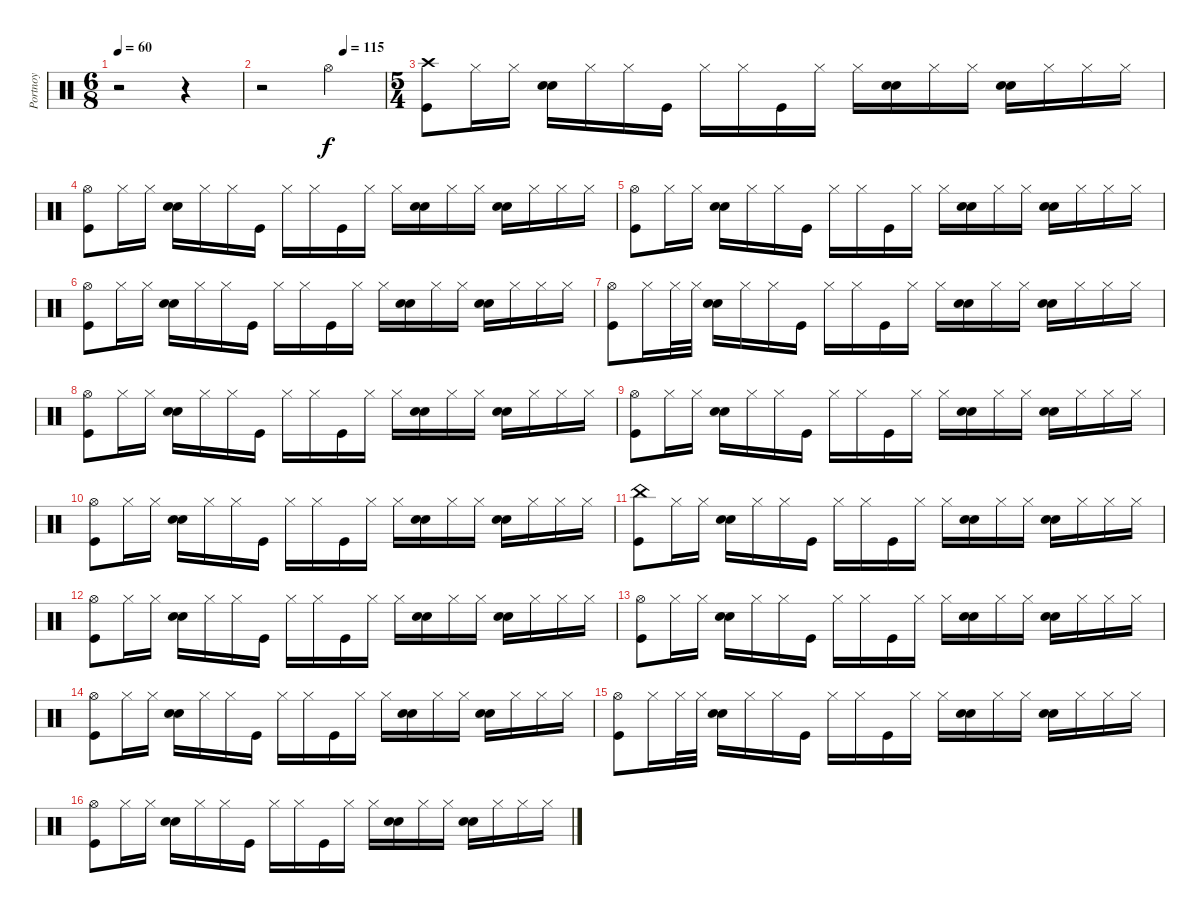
\track ("Portnoy" "Portnoy") {instrument percussion}
\staff {score}
\articulation defaults
\ts (6 8)
\tempo 60
\clef neutral
\ks c
r.2{dy f} r.4 |
\tempo (115 0.6666666666666666)
r.2 "Hi-Hat (open)".4 |
\ts (5 4)
("Crash high (hit)" "Kick (hit)").8 "Hi-Hat (closed)".16 "Hi-Hat (closed)".16 ("Snare (hit) 2" "Electric Snare (hit)").16 "Hi-Hat (closed)".16 "Hi-Hat (closed)".16 "Kick (hit)".16 "Hi-Hat (closed)".16 "Hi-Hat (closed)".16 "Kick (hit)".16 "Hi-Hat (closed)".16 "Hi-Hat (closed)".16 ("Snare (hit) 2" "Electric Snare (hit)").16 "Hi-Hat (closed)".16 "Hi-Hat (closed)".16 ("Snare (hit) 2" "Electric Snare (hit)").16 "Hi-Hat (closed)".16 "Hi-Hat (closed)".16 "Hi-Hat (closed)".16 |
("Hi-Hat (open)" "Kick (hit)").8 "Hi-Hat (closed)".16 "Hi-Hat (closed)".16 ("Snare (hit) 2" "Electric Snare (hit)").16 "Hi-Hat (closed)".16 "Hi-Hat (closed)".16 "Kick (hit)".16 "Hi-Hat (closed)".16 "Hi-Hat (closed)".16 "Kick (hit)".16 "Hi-Hat (closed)".16 "Hi-Hat (closed)".16 ("Snare (hit) 2" "Electric Snare (hit)").16 "Hi-Hat (closed)".16 "Hi-Hat (closed)".16 ("Snare (hit) 2" "Electric Snare (hit)").16 "Hi-Hat (closed)".16 "Hi-Hat (closed)".16 "Hi-Hat (closed)".16 |
("Hi-Hat (open)" "Kick (hit)").8 "Hi-Hat (closed)".16 "Hi-Hat (closed)".16 ("Snare (hit) 2" "Electric Snare (hit)").16 "Hi-Hat (closed)".16 "Hi-Hat (closed)".16 "Kick (hit)".16 "Hi-Hat (closed)".16 "Hi-Hat (closed)".16 "Kick (hit)".16 "Hi-Hat (closed)".16 "Hi-Hat (closed)".16 ("Snare (hit) 2" "Electric Snare (hit)").16 "Hi-Hat (closed)".16 "Hi-Hat (closed)".16 ("Snare (hit) 2" "Electric Snare (hit)").16 "Hi-Hat (closed)".16 "Hi-Hat (closed)".16 "Hi-Hat (closed)".16 |
("Hi-Hat (open)" "Kick (hit)").8 "Hi-Hat (closed)".16 "Hi-Hat (closed)".16 ("Snare (hit) 2" "Electric Snare (hit)").16 "Hi-Hat (closed)".16 "Hi-Hat (closed)".16 "Kick (hit)".16 "Hi-Hat (closed)".16 "Hi-Hat (closed)".16 "Kick (hit)".16 "Hi-Hat (closed)".16 "Hi-Hat (closed)".16 ("Snare (hit) 2" "Electric Snare (hit)").16 "Hi-Hat (closed)".16 "Hi-Hat (closed)".16 ("Snare (hit) 2" "Electric Snare (hit)").16 "Hi-Hat (closed)".16 "Hi-Hat (closed)".16 "Hi-Hat (closed)".16 |
("Hi-Hat (open)" "Kick (hit)").8 "Hi-Hat (closed)".16 "Hi-Hat (closed)".32 "Hi-Hat (closed)".32 ("Snare (hit) 2" "Electric Snare (hit)").16 "Hi-Hat (closed)".16 "Hi-Hat (closed)".16 "Kick (hit)".16 "Hi-Hat (closed)".16 "Hi-Hat (closed)".16 "Kick (hit)".16 "Hi-Hat (closed)".16 "Hi-Hat (closed)".16 ("Snare (hit) 2" "Electric Snare (hit)").16 "Hi-Hat (closed)".16 "Hi-Hat (closed)".16 ("Snare (hit) 2" "Electric Snare (hit)").16 "Hi-Hat (closed)".16 "Hi-Hat (closed)".16 "Hi-Hat (closed)".16 |
("Hi-Hat (open)" "Kick (hit)").8 "Hi-Hat (closed)".16 "Hi-Hat (closed)".16 ("Snare (hit) 2" "Electric Snare (hit)").16 "Hi-Hat (closed)".16 "Hi-Hat (closed)".16 "Kick (hit)".16 "Hi-Hat (closed)".16 "Hi-Hat (closed)".16 "Kick (hit)".16 "Hi-Hat (closed)".16 "Hi-Hat (closed)".16 ("Snare (hit) 2" "Electric Snare (hit)").16 "Hi-Hat (closed)".16 "Hi-Hat (closed)".16 ("Snare (hit) 2" "Electric Snare (hit)").16 "Hi-Hat (closed)".16 "Hi-Hat (closed)".16 "Hi-Hat (closed)".16 |
("Hi-Hat (open)" "Kick (hit)").8 "Hi-Hat (closed)".16 "Hi-Hat (closed)".16 ("Snare (hit) 2" "Electric Snare (hit)").16 "Hi-Hat (closed)".16 "Hi-Hat (closed)".16 "Kick (hit)".16 "Hi-Hat (closed)".16 "Hi-Hat (closed)".16 "Kick (hit)".16 "Hi-Hat (closed)".16 "Hi-Hat (closed)".16 ("Snare (hit) 2" "Electric Snare (hit)").16 "Hi-Hat (closed)".16 "Hi-Hat (closed)".16 ("Snare (hit) 2" "Electric Snare (hit)").16 "Hi-Hat (closed)".16 "Hi-Hat (closed)".16 "Hi-Hat (closed)".16 |
("Hi-Hat (open)" "Kick (hit)").8 "Hi-Hat (closed)".16 "Hi-Hat (closed)".16 ("Snare (hit) 2" "Electric Snare (hit)").16 "Hi-Hat (closed)".16 "Hi-Hat (closed)".16 "Kick (hit)".16 "Hi-Hat (closed)".16 "Hi-Hat (closed)".16 "Kick (hit)".16 "Hi-Hat (closed)".16 "Hi-Hat (closed)".16 ("Snare (hit) 2" "Electric Snare (hit)").16 "Hi-Hat (closed)".16 "Hi-Hat (closed)".16 ("Snare (hit) 2" "Electric Snare (hit)").16 "Hi-Hat (closed)".16 "Hi-Hat (closed)".16 "Hi-Hat (closed)".16 |
("China (hit)" "Kick (hit)").8 "Hi-Hat (closed)".16 "Hi-Hat (closed)".16 ("Snare (hit) 2" "Electric Snare (hit)").16 "Hi-Hat (closed)".16 "Hi-Hat (closed)".16 "Kick (hit)".16 "Hi-Hat (closed)".16 "Hi-Hat (closed)".16 "Kick (hit)".16 "Hi-Hat (closed)".16 "Hi-Hat (closed)".16 ("Snare (hit) 2" "Electric Snare (hit)").16 "Hi-Hat (closed)".16 "Hi-Hat (closed)".16 ("Snare (hit) 2" "Electric Snare (hit)").16 "Hi-Hat (closed)".16 "Hi-Hat (closed)".16 "Hi-Hat (closed)".16 |
("Hi-Hat (open)" "Kick (hit)").8 "Hi-Hat (closed)".16 "Hi-Hat (closed)".16 ("Snare (hit) 2" "Electric Snare (hit)").16 "Hi-Hat (closed)".16 "Hi-Hat (closed)".16 "Kick (hit)".16 "Hi-Hat (closed)".16 "Hi-Hat (closed)".16 "Kick (hit)".16 "Hi-Hat (closed)".16 "Hi-Hat (closed)".16 ("Snare (hit) 2" "Electric Snare (hit)").16 "Hi-Hat (closed)".16 "Hi-Hat (closed)".16 ("Snare (hit) 2" "Electric Snare (hit)").16 "Hi-Hat (closed)".16 "Hi-Hat (closed)".16 "Hi-Hat (closed)".16 |
("Hi-Hat (open)" "Kick (hit)").8 "Hi-Hat (closed)".16 "Hi-Hat (closed)".16 ("Snare (hit) 2" "Electric Snare (hit)").16 "Hi-Hat (closed)".16 "Hi-Hat (closed)".16 "Kick (hit)".16 "Hi-Hat (closed)".16 "Hi-Hat (closed)".16 "Kick (hit)".16 "Hi-Hat (closed)".16 "Hi-Hat (closed)".16 ("Snare (hit) 2" "Electric Snare (hit)").16 "Hi-Hat (closed)".16 "Hi-Hat (closed)".16 ("Snare (hit) 2" "Electric Snare (hit)").16 "Hi-Hat (closed)".16 "Hi-Hat (closed)".16 "Hi-Hat (closed)".16 |
("Hi-Hat (open)" "Kick (hit)").8 "Hi-Hat (closed)".16 "Hi-Hat (closed)".16 ("Snare (hit) 2" "Electric Snare (hit)").16 "Hi-Hat (closed)".16 "Hi-Hat (closed)".16 "Kick (hit)".16 "Hi-Hat (closed)".16 "Hi-Hat (closed)".16 "Kick (hit)".16 "Hi-Hat (closed)".16 "Hi-Hat (closed)".16 ("Snare (hit) 2" "Electric Snare (hit)").16 "Hi-Hat (closed)".16 "Hi-Hat (closed)".16 ("Snare (hit) 2" "Electric Snare (hit)").16 "Hi-Hat (closed)".16 "Hi-Hat (closed)".16 "Hi-Hat (closed)".16 |
("Hi-Hat (open)" "Kick (hit)").8 "Hi-Hat (closed)".16 "Hi-Hat (closed)".32 "Hi-Hat (closed)".32 ("Snare (hit) 2" "Electric Snare (hit)").16 "Hi-Hat (closed)".16 "Hi-Hat (closed)".16 "Kick (hit)".16 "Hi-Hat (closed)".16 "Hi-Hat (closed)".16 "Kick (hit)".16 "Hi-Hat (closed)".16 "Hi-Hat (closed)".16 ("Snare (hit) 2" "Electric Snare (hit)").16 "Hi-Hat (closed)".16 "Hi-Hat (closed)".16 ("Snare (hit) 2" "Electric Snare (hit)").16 "Hi-Hat (closed)".16 "Hi-Hat (closed)".16 "Hi-Hat (closed)".16 |
("Hi-Hat (open)" "Kick (hit)").8 "Hi-Hat (closed)".16 "Hi-Hat (closed)".16 ("Snare (hit) 2" "Electric Snare (hit)").16 "Hi-Hat (closed)".16 "Hi-Hat (closed)".16 "Kick (hit)".16 "Hi-Hat (closed)".16 "Hi-Hat (closed)".16 "Kick (hit)".16 "Hi-Hat (closed)".16 "Hi-Hat (closed)".16 ("Snare (hit) 2" "Electric Snare (hit)").16 "Hi-Hat (closed)".16 "Hi-Hat (closed)".16 ("Snare (hit) 2" "Electric Snare (hit)").16 "Hi-Hat (closed)".16 "Hi-Hat (closed)".16 "Hi-Hat (closed)".16
